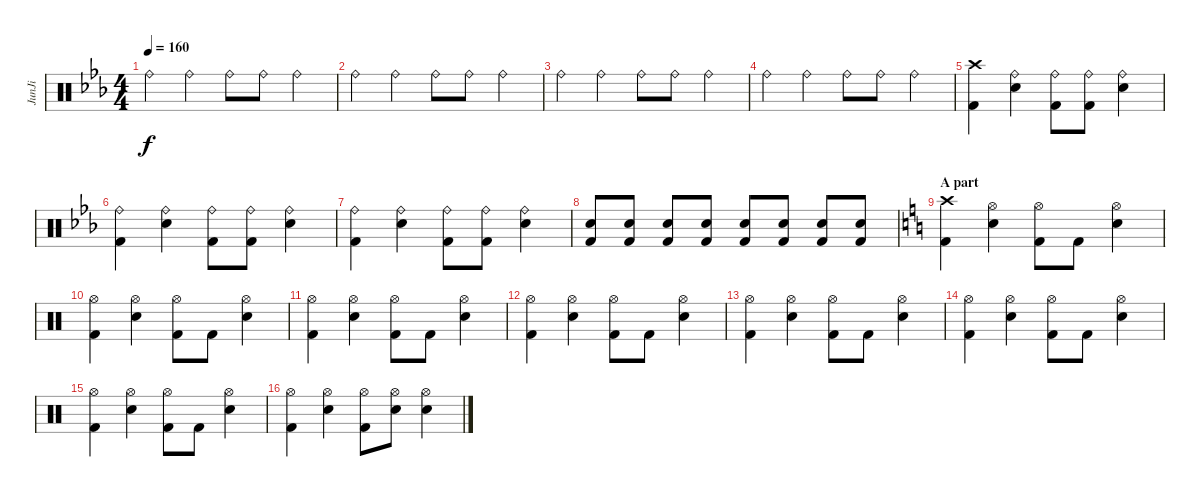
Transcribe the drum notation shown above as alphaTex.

\track ("JunJi" "JunJi") {instrument percussion}
\staff {score}
\articulation defaults
\ts (4 4)
\tempo 160
\clef neutral
\ks eb "Ride (bell)".4{dy f} "Ride (bell)".4 "Ride (bell)".8 "Ride (bell)".8 "Ride (bell)".4
|
"Ride (bell)".4 "Ride (bell)".4 "Ride (bell)".8 "Ride (bell)".8 "Ride (bell)".4 |
"Ride (bell)".4 "Ride (bell)".4 "Ride (bell)".8 "Ride (bell)".8 "Ride (bell)".4 |
"Ride (bell)".4 "Ride (bell)".4 "Ride (bell)".8 "Ride (bell)".8 "Ride (bell)".4 |
("Crash high (hit)" "Kick (hit) 2").4 ("Ride (bell)" "Snare (hit) 2").4 ("Ride (bell)" "Kick (hit) 2").8 ("Ride (bell)" "Kick (hit) 2").8 ("Ride (bell)" "Snare (hit) 2").4 |
("Ride (bell)" "Kick (hit) 2").4 ("Ride (bell)" "Snare (hit) 2").4 ("Ride (bell)" "Kick (hit) 2").8 ("Ride (bell)" "Kick (hit) 2").8 ("Ride (bell)" "Snare (hit) 2").4 |
("Ride (bell)" "Kick (hit) 2").4 ("Ride (bell)" "Snare (hit) 2").4 ("Ride (bell)" "Kick (hit) 2").8 ("Ride (bell)" "Kick (hit) 2").8 ("Ride (bell)" "Snare (hit) 2").4 |
("Snare (hit) 2" "Kick (hit) 2").8 ("Snare (hit) 2" "Kick (hit) 2").8 ("Snare (hit) 2" "Kick (hit) 2").8 ("Snare (hit) 2" "Kick (hit) 2").8 ("Snare (hit) 2" "Kick (hit) 2").8 ("Snare (hit) 2" "Kick (hit) 2").8 ("Snare (hit) 2" "Kick (hit) 2").8 ("Snare (hit) 2" "Kick (hit) 2").8 |
\section ("" "A part")
\ks c
("Crash high (hit)" "Kick (hit) 2").4 ("Hi-Hat (open)" "Snare (hit) 2").4 ("Hi-Hat (open)" "Kick (hit) 2").8 "Kick (hit) 2".8 ("Hi-Hat (open)" "Snare (hit) 2").4 |
("Hi-Hat (open)" "Kick (hit) 2").4 ("Hi-Hat (open)" "Snare (hit) 2").4 ("Hi-Hat (open)" "Kick (hit) 2").8 "Kick (hit) 2".8 ("Hi-Hat (open)" "Snare (hit) 2").4 |
("Hi-Hat (open)" "Kick (hit) 2").4 ("Hi-Hat (open)" "Snare (hit) 2").4 ("Hi-Hat (open)" "Kick (hit) 2").8 "Kick (hit) 2".8 ("Hi-Hat (open)" "Snare (hit) 2").4 |
("Hi-Hat (open)" "Kick (hit) 2").4 ("Hi-Hat (open)" "Snare (hit) 2").4 ("Hi-Hat (open)" "Kick (hit) 2").8 "Kick (hit) 2".8 ("Hi-Hat (open)" "Snare (hit) 2").4 |
("Hi-Hat (open)" "Kick (hit) 2").4 ("Hi-Hat (open)" "Snare (hit) 2").4 ("Hi-Hat (open)" "Kick (hit) 2").8 "Kick (hit) 2".8 ("Hi-Hat (open)" "Snare (hit) 2").4 |
("Hi-Hat (open)" "Kick (hit) 2").4 ("Hi-Hat (open)" "Snare (hit) 2").4 ("Hi-Hat (open)" "Kick (hit) 2").8 "Kick (hit) 2".8 ("Hi-Hat (open)" "Snare (hit) 2").4 |
("Hi-Hat (open)" "Kick (hit) 2").4 ("Hi-Hat (open)" "Snare (hit) 2").4 ("Hi-Hat (open)" "Kick (hit) 2").8 "Kick (hit) 2".8 ("Hi-Hat (open)" "Snare (hit) 2").4 |
("Hi-Hat (open)" "Kick (hit) 2").4 ("Hi-Hat (open)" "Snare (hit) 2").4 ("Hi-Hat (open)" "Kick (hit) 2").8 ("Hi-Hat (open)" "Snare (hit) 2").8 ("Hi-Hat (open)" "Snare (hit) 2").4
